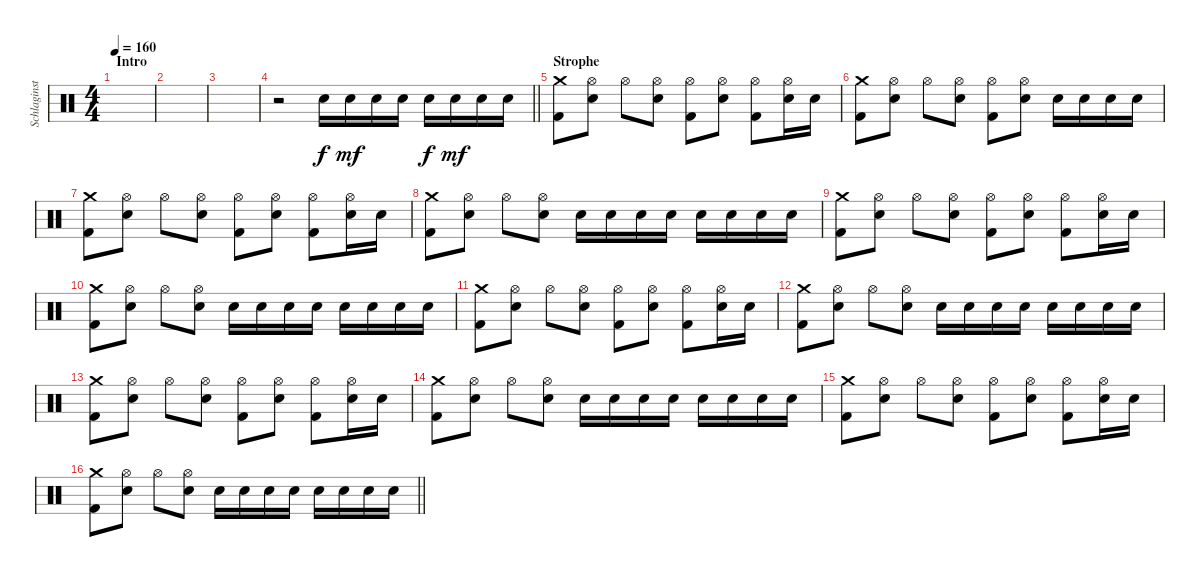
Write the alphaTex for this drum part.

\track ("Schlaginstrumente - Auswahl" "Schlaginst") {instrument percussion}
\staff {score}
\articulation defaults
\ts (4 4)
\section ("" "Intro")
\tempo 160
\clef neutral
\ks c
|
|
|
\barLineRight lightlight
r.2 "Snare (hit) 2".16 "Snare (hit) 2".16{dy mf} "Snare (hit) 2".16 "Snare (hit) 2".16 "Snare (hit) 2".16{dy f} "Snare (hit) 2".16{dy mf} "Snare (hit) 2".16 "Snare (hit) 2".16 |
\section ("" "Strophe")
("Crash medium (hit)" "Kick (hit) 2").8 ("Hi-Hat (open)" "Snare (hit) 2").8 "Hi-Hat (open)".8 ("Hi-Hat (open)" "Snare (hit) 2").8 ("Hi-Hat (open)" "Kick (hit) 2").8 ("Hi-Hat (open)" "Snare (hit) 2").8 ("Hi-Hat (open)" "Kick (hit) 2").8 ("Hi-Hat (open)" "Snare (hit) 2").16 "Snare (hit) 2".16 |
("Crash medium (hit)" "Kick (hit) 2").8 ("Hi-Hat (open)" "Snare (hit) 2").8 "Hi-Hat (open)".8 ("Hi-Hat (open)" "Snare (hit) 2").8 ("Hi-Hat (open)" "Kick (hit) 2").8 ("Hi-Hat (open)" "Snare (hit) 2").8 "Snare (hit) 2".16 "Snare (hit) 2".16 "Snare (hit) 2".16 "Snare (hit) 2".16 |
("Crash medium (hit)" "Kick (hit) 2").8 ("Hi-Hat (open)" "Snare (hit) 2").8 "Hi-Hat (open)".8 ("Hi-Hat (open)" "Snare (hit) 2").8 ("Hi-Hat (open)" "Kick (hit) 2").8 ("Hi-Hat (open)" "Snare (hit) 2").8 ("Hi-Hat (open)" "Kick (hit) 2").8 ("Hi-Hat (open)" "Snare (hit) 2").16 "Snare (hit) 2".16 |
("Crash medium (hit)" "Kick (hit) 2").8 ("Hi-Hat (open)" "Snare (hit) 2").8 "Hi-Hat (open)".8 ("Hi-Hat (open)" "Snare (hit) 2").8 "Snare (hit) 2".16 "Snare (hit) 2".16 "Snare (hit) 2".16 "Snare (hit) 2".16 "Snare (hit) 2".16 "Snare (hit) 2".16 "Snare (hit) 2".16 "Snare (hit) 2".16 |
("Crash medium (hit)" "Kick (hit) 2").8 ("Hi-Hat (open)" "Snare (hit) 2").8 "Hi-Hat (open)".8 ("Hi-Hat (open)" "Snare (hit) 2").8 ("Hi-Hat (open)" "Kick (hit) 2").8 ("Hi-Hat (open)" "Snare (hit) 2").8 ("Hi-Hat (open)" "Kick (hit) 2").8 ("Hi-Hat (open)" "Snare (hit) 2").16 "Snare (hit) 2".16 |
("Crash medium (hit)" "Kick (hit) 2").8 ("Hi-Hat (open)" "Snare (hit) 2").8 "Hi-Hat (open)".8 ("Hi-Hat (open)" "Snare (hit) 2").8 "Snare (hit) 2".16 "Snare (hit) 2".16 "Snare (hit) 2".16 "Snare (hit) 2".16 "Snare (hit) 2".16 "Snare (hit) 2".16 "Snare (hit) 2".16 "Snare (hit) 2".16 |
("Crash medium (hit)" "Kick (hit) 2").8 ("Hi-Hat (open)" "Snare (hit) 2").8 "Hi-Hat (open)".8 ("Hi-Hat (open)" "Snare (hit) 2").8 ("Hi-Hat (open)" "Kick (hit) 2").8 ("Hi-Hat (open)" "Snare (hit) 2").8 ("Hi-Hat (open)" "Kick (hit) 2").8 ("Hi-Hat (open)" "Snare (hit) 2").16 "Snare (hit) 2".16 |
("Crash medium (hit)" "Kick (hit) 2").8 ("Hi-Hat (open)" "Snare (hit) 2").8 "Hi-Hat (open)".8 ("Hi-Hat (open)" "Snare (hit) 2").8 "Snare (hit) 2".16 "Snare (hit) 2".16 "Snare (hit) 2".16 "Snare (hit) 2".16 "Snare (hit) 2".16 "Snare (hit) 2".16 "Snare (hit) 2".16 "Snare (hit) 2".16 |
("Crash medium (hit)" "Kick (hit) 2").8 ("Hi-Hat (open)" "Snare (hit) 2").8 "Hi-Hat (open)".8 ("Hi-Hat (open)" "Snare (hit) 2").8 ("Hi-Hat (open)" "Kick (hit) 2").8 ("Hi-Hat (open)" "Snare (hit) 2").8 ("Hi-Hat (open)" "Kick (hit) 2").8 ("Hi-Hat (open)" "Snare (hit) 2").16 "Snare (hit) 2".16 |
("Crash medium (hit)" "Kick (hit) 2").8 ("Hi-Hat (open)" "Snare (hit) 2").8 "Hi-Hat (open)".8 ("Hi-Hat (open)" "Snare (hit) 2").8 "Snare (hit) 2".16 "Snare (hit) 2".16 "Snare (hit) 2".16 "Snare (hit) 2".16 "Snare (hit) 2".16 "Snare (hit) 2".16 "Snare (hit) 2".16 "Snare (hit) 2".16 |
("Crash medium (hit)" "Kick (hit) 2").8 ("Hi-Hat (open)" "Snare (hit) 2").8 "Hi-Hat (open)".8 ("Hi-Hat (open)" "Snare (hit) 2").8 ("Hi-Hat (open)" "Kick (hit) 2").8 ("Hi-Hat (open)" "Snare (hit) 2").8 ("Hi-Hat (open)" "Kick (hit) 2").8 ("Hi-Hat (open)" "Snare (hit) 2").16 "Snare (hit) 2".16 |
\barLineRight lightlight
("Crash medium (hit)" "Kick (hit) 2").8 ("Hi-Hat (open)" "Snare (hit) 2").8 "Hi-Hat (open)".8 ("Hi-Hat (open)" "Snare (hit) 2").8 "Snare (hit) 2".16 "Snare (hit) 2".16 "Snare (hit) 2".16 "Snare (hit) 2".16 "Snare (hit) 2".16 "Snare (hit) 2".16 "Snare (hit) 2".16 "Snare (hit) 2".16
